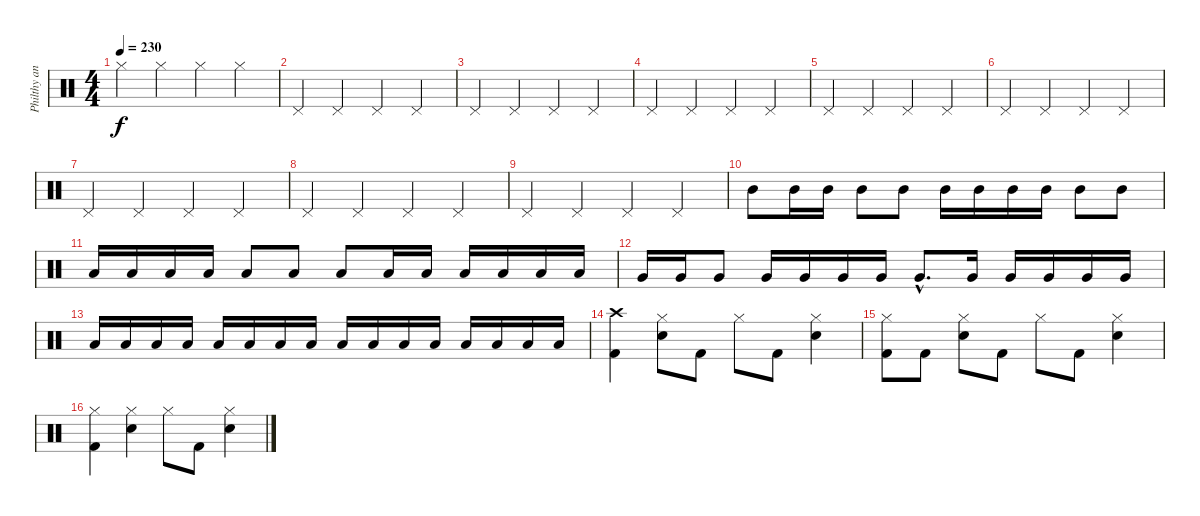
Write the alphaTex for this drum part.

\track ("Philthy animal Taylor" "Philthy an") {instrument percussion}
\staff {score}
\articulation defaults
\ts (4 4)
\tempo 230
\clef neutral
\ks c "Hi-Hat (closed)".4{dy f} "Hi-Hat (closed)".4 "Hi-Hat (closed)".4 "Hi-Hat (closed)".4
|
"Pedal Hi-Hat (hit)".4 "Pedal Hi-Hat (hit)".4 "Pedal Hi-Hat (hit)".4 "Pedal Hi-Hat (hit)".4 |
"Pedal Hi-Hat (hit)".4 "Pedal Hi-Hat (hit)".4 "Pedal Hi-Hat (hit)".4 "Pedal Hi-Hat (hit)".4 |
"Pedal Hi-Hat (hit)".4 "Pedal Hi-Hat (hit)".4 "Pedal Hi-Hat (hit)".4 "Pedal Hi-Hat (hit)".4 |
"Pedal Hi-Hat (hit)".4 "Pedal Hi-Hat (hit)".4 "Pedal Hi-Hat (hit)".4 "Pedal Hi-Hat (hit)".4 |
"Pedal Hi-Hat (hit)".4 "Pedal Hi-Hat (hit)".4 "Pedal Hi-Hat (hit)".4 "Pedal Hi-Hat (hit)".4 |
"Pedal Hi-Hat (hit)".4 "Pedal Hi-Hat (hit)".4 "Pedal Hi-Hat (hit)".4 "Pedal Hi-Hat (hit)".4 |
"Pedal Hi-Hat (hit)".4 "Pedal Hi-Hat (hit)".4 "Pedal Hi-Hat (hit)".4 "Pedal Hi-Hat (hit)".4 |
"Pedal Hi-Hat (hit)".4 "Pedal Hi-Hat (hit)".4 "Pedal Hi-Hat (hit)".4 "Pedal Hi-Hat (hit)".4 |
"Mid Tom (hit)".8 "Mid Tom (hit)".16 "Mid Tom (hit)".16 "Mid Tom (hit)".8 "Mid Tom (hit)".8 "Mid Tom (hit)".16 "Mid Tom (hit)".16 "Mid Tom (hit)".16 "Mid Tom (hit)".16 "Mid Tom (hit)".8 "Mid Tom (hit)".8 |
"Low Tom (hit)".16 "Low Tom (hit)".16 "Low Tom (hit)".16 "Low Tom (hit)".16 "Low Tom (hit)".8 "Low Tom (hit)".8 "Low Tom (hit)".8 "Low Tom (hit)".16 "Low Tom (hit)".16 "Low Tom (hit)".16 "Low Tom (hit)".16 "Low Tom (hit)".16 "Low Tom (hit)".16 |
"Very Low Tom (hit)".16 "Very Low Tom (hit)".16 "Very Low Tom (hit)".8 "Very Low Tom (hit)".16 "Very Low Tom (hit)".16 "Very Low Tom (hit)".16 "Very Low Tom (hit)".16 "Very Low Tom (hit)"{hac}.8{d} "Very Low Tom (hit)".16 "Very Low Tom (hit)".16 "Very Low Tom (hit)".16 "Very Low Tom (hit)".16 "Very Low Tom (hit)".16 |
"Low Floor Tom (hit)".16 "Low Floor Tom (hit)".16 "Low Floor Tom (hit)".16 "Low Floor Tom (hit)".16 "Low Floor Tom (hit)".16 "Low Floor Tom (hit)".16 "Low Floor Tom (hit)".16 "Low Floor Tom (hit)".16 "Low Floor Tom (hit)".16 "Low Floor Tom (hit)".16 "Low Floor Tom (hit)".16 "Low Floor Tom (hit)".16 "Low Floor Tom (hit)".16 "Low Floor Tom (hit)".16 "Low Floor Tom (hit)".16 "Low Floor Tom (hit)".16 |
("Crash high (hit)" "Kick (hit) 2").4 ("Hi-Hat (closed)" "Snare (hit) 2").8 "Kick (hit) 2".8 "Hi-Hat (closed)".8 "Kick (hit) 2".8 ("Hi-Hat (closed)" "Snare (hit) 2").4 |
("Hi-Hat (closed)" "Kick (hit) 2").8 "Kick (hit) 2".8 ("Hi-Hat (closed)" "Snare (hit) 2").8 "Kick (hit) 2".8 "Hi-Hat (closed)".8 "Kick (hit) 2".8 ("Hi-Hat (closed)" "Snare (hit) 2").4 |
("Hi-Hat (closed)" "Kick (hit) 2").4 ("Hi-Hat (closed)" "Snare (hit) 2").4 "Hi-Hat (closed)".8 "Kick (hit) 2".8 ("Hi-Hat (closed)" "Snare (hit) 2").4
